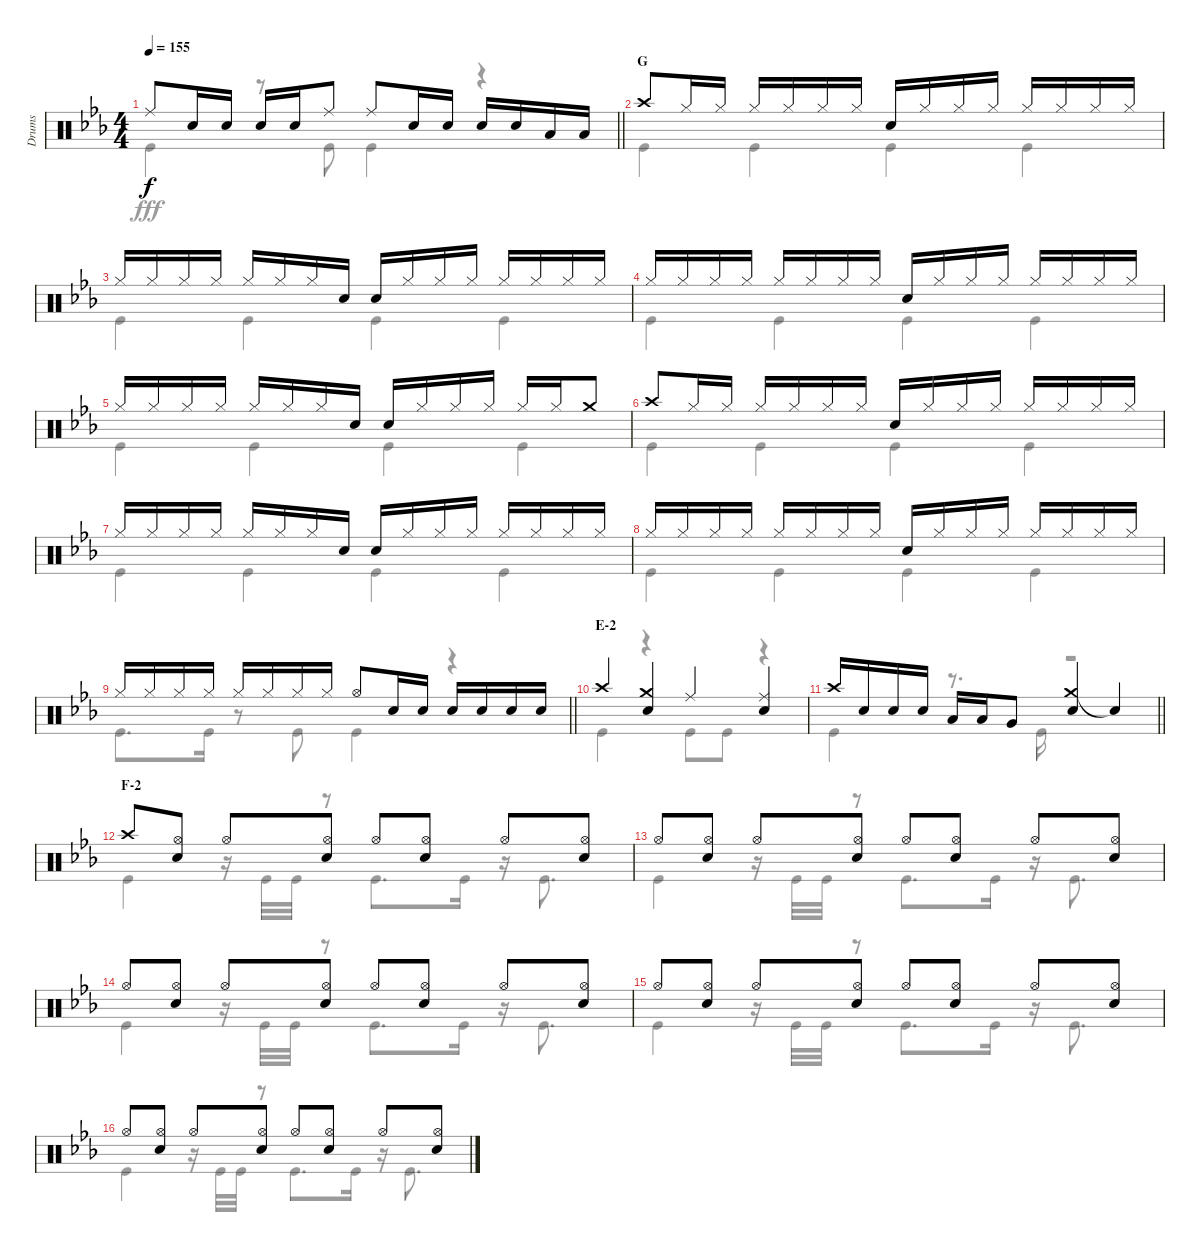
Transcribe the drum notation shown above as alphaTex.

\track ("Drums" "Drums") {instrument percussion}
\staff {score}
\articulation defaults
\voice
\ts (4 4)
\tempo 155
\clef neutral
\barLineRight lightlight
\ks eb "Ride (middle)".8{dy f} "Snare (hit) 2".16 "Snare (hit) 2".16 "Snare (hit) 2".16 "Snare (hit) 2".16 "Ride (middle)".8 "Ride (middle)".8 "Snare (hit) 2".16 "Snare (hit) 2".16 "Snare (hit) 2".16 "Snare (hit) 2".16 "Low Tom (hit)".16 "Low Tom (hit)".16
|
\section ("" "G")
"Crash high (hit)".8 "Hi-Hat (closed)".16 "Hi-Hat (closed)".16 "Hi-Hat (closed)".16 "Hi-Hat (closed)".16 "Hi-Hat (closed)".16 "Hi-Hat (closed)".16 "Snare (hit) 2".16 "Hi-Hat (closed)".16 "Hi-Hat (closed)".16 "Hi-Hat (closed)".16 "Hi-Hat (closed)".16 "Hi-Hat (closed)".16 "Hi-Hat (closed)".16 "Hi-Hat (closed)".16 |
"Hi-Hat (closed)".16 "Hi-Hat (closed)".16 "Hi-Hat (closed)".16 "Hi-Hat (closed)".16 "Hi-Hat (closed)".16 "Hi-Hat (closed)".16 "Hi-Hat (closed)".16 "Snare (hit) 2".16 "Snare (hit) 2".16 "Hi-Hat (closed)".16 "Hi-Hat (closed)".16 "Hi-Hat (closed)".16 "Hi-Hat (closed)".16 "Hi-Hat (closed)".16 "Hi-Hat (closed)".16 "Hi-Hat (closed)".16 |
"Hi-Hat (closed)".16 "Hi-Hat (closed)".16 "Hi-Hat (closed)".16 "Hi-Hat (closed)".16 "Hi-Hat (closed)".16 "Hi-Hat (closed)".16 "Hi-Hat (closed)".16 "Hi-Hat (closed)".16 "Snare (hit) 2".16 "Hi-Hat (closed)".16 "Hi-Hat (closed)".16 "Hi-Hat (closed)".16 "Hi-Hat (closed)".16 "Hi-Hat (closed)".16 "Hi-Hat (closed)".16 "Hi-Hat (closed)".16 |
"Hi-Hat (closed)".16 "Hi-Hat (closed)".16 "Hi-Hat (closed)".16 "Hi-Hat (closed)".16 "Hi-Hat (closed)".16 "Hi-Hat (closed)".16 "Hi-Hat (closed)".16 "Snare (hit) 2".16 "Snare (hit) 2".16 "Hi-Hat (closed)".16 "Hi-Hat (closed)".16 "Hi-Hat (closed)".16 "Hi-Hat (closed)".16 "Hi-Hat (closed)".16 "Crash medium (hit)".8 |
"Crash high (hit)".8 "Hi-Hat (closed)".16 "Hi-Hat (closed)".16 "Hi-Hat (closed)".16 "Hi-Hat (closed)".16 "Hi-Hat (closed)".16 "Hi-Hat (closed)".16 "Snare (hit) 2".16 "Hi-Hat (closed)".16 "Hi-Hat (closed)".16 "Hi-Hat (closed)".16 "Hi-Hat (closed)".16 "Hi-Hat (closed)".16 "Hi-Hat (closed)".16 "Hi-Hat (closed)".16 |
"Hi-Hat (closed)".16 "Hi-Hat (closed)".16 "Hi-Hat (closed)".16 "Hi-Hat (closed)".16 "Hi-Hat (closed)".16 "Hi-Hat (closed)".16 "Hi-Hat (closed)".16 "Snare (hit) 2".16 "Snare (hit) 2".16 "Hi-Hat (closed)".16 "Hi-Hat (closed)".16 "Hi-Hat (closed)".16 "Hi-Hat (closed)".16 "Hi-Hat (closed)".16 "Hi-Hat (closed)".16 "Hi-Hat (closed)".16 |
"Hi-Hat (closed)".16 "Hi-Hat (closed)".16 "Hi-Hat (closed)".16 "Hi-Hat (closed)".16 "Hi-Hat (closed)".16 "Hi-Hat (closed)".16 "Hi-Hat (closed)".16 "Hi-Hat (closed)".16 "Snare (hit) 2".16 "Hi-Hat (closed)".16 "Hi-Hat (closed)".16 "Hi-Hat (closed)".16 "Hi-Hat (closed)".16 "Hi-Hat (closed)".16 "Hi-Hat (closed)".16 "Hi-Hat (closed)".16 |
\barLineRight lightlight "Hi-Hat (closed)".16 "Hi-Hat (closed)".16 "Hi-Hat (closed)".16 "Hi-Hat (closed)".16 "Hi-Hat (closed)".16 "Hi-Hat (closed)".16 "Hi-Hat (closed)".16 "Hi-Hat (closed)".16 "Hi-Hat (open)".8 "Snare (hit) 2".16 "Snare (hit) 2".16 "Snare (hit) 2".16 "Snare (hit) 2".16 "Snare (hit) 2".16 "Snare (hit) 2".16
|
\section ("" "E-2")
"Crash high (hit)".4 ("Crash medium (hit)" "Snare (hit) 2").4 "Ride (middle)".4 ("Ride (middle)" "Snare (hit) 2").4 |
\barLineRight lightlight "Crash high (hit)".16 "Snare (hit) 2".16 "Snare (hit) 2".16 "Snare (hit) 2".16 "Low Tom (hit)".16 "Low Tom (hit)".16 "Very Low Tom (hit)".8
("Crash medium (hit)" "Snare (hit) 2").4 "Snare (hit)"{t}.4 |
\section ("" "F-2")
"Crash high (hit)".8 ("Hi-Hat (open)" "Snare (hit) 2").8 "Hi-Hat (open)".8 ("Hi-Hat (open)" "Snare (hit) 2").8 "Hi-Hat (open)".8 ("Hi-Hat (open)" "Snare (hit) 2").8 "Hi-Hat (open)".8 ("Hi-Hat (open)" "Snare (hit) 2").8 |
"Hi-Hat (open)".8 ("Hi-Hat (open)" "Snare (hit) 2").8 "Hi-Hat (open)".8 ("Hi-Hat (open)" "Snare (hit) 2").8 "Hi-Hat (open)".8 ("Hi-Hat (open)" "Snare (hit) 2").8 "Hi-Hat (open)".8 ("Hi-Hat (open)" "Snare (hit) 2").8 |
"Hi-Hat (open)".8 ("Hi-Hat (open)" "Snare (hit) 2").8 "Hi-Hat (open)".8 ("Hi-Hat (open)" "Snare (hit) 2").8 "Hi-Hat (open)".8 ("Hi-Hat (open)" "Snare (hit) 2").8 "Hi-Hat (open)".8 ("Hi-Hat (open)" "Snare (hit) 2").8 |
"Hi-Hat (open)".8 ("Hi-Hat (open)" "Snare (hit) 2").8 "Hi-Hat (open)".8 ("Hi-Hat (open)" "Snare (hit) 2").8 "Hi-Hat (open)".8 ("Hi-Hat (open)" "Snare (hit) 2").8 "Hi-Hat (open)".8 ("Hi-Hat (open)" "Snare (hit) 2").8 |
"Hi-Hat (open)".8 ("Hi-Hat (open)" "Snare (hit) 2").8 "Hi-Hat (open)".8 ("Hi-Hat (open)" "Snare (hit) 2").8 "Hi-Hat (open)".8 ("Hi-Hat (open)" "Snare (hit) 2").8 "Hi-Hat (open)".8 ("Hi-Hat (open)" "Snare (hit) 2").8
\voice
\clef neutral
\ottava regular
\simile none
\barLineRight lightlight
\ks eb "Kick (hit)".4{dy fff}
r.8 "Kick (hit)".8 "Kick (hit)".4 r.4 |
"Kick (hit)".4 "Kick (hit)".4 "Kick (hit)".4 "Kick (hit)".4 |
"Kick (hit)".4 "Kick (hit)".4 "Kick (hit)".4 "Kick (hit)".4 |
"Kick (hit)".4 "Kick (hit)".4 "Kick (hit)".4 "Kick (hit)".4 |
"Kick (hit)".4 "Kick (hit)".4 "Kick (hit)".4 "Kick (hit)".4 |
"Kick (hit)".4 "Kick (hit)".4 "Kick (hit)".4 "Kick (hit)".4 |
"Kick (hit)".4 "Kick (hit)".4 "Kick (hit)".4 "Kick (hit)".4 |
"Kick (hit)".4 "Kick (hit)".4 "Kick (hit)".4 "Kick (hit)".4 |
\barLineRight lightlight "Kick (hit)".8{d} "Kick (hit)".16
r.8 "Kick (hit)".8 "Kick (hit)".4 r.4 |
"Kick (hit)".4 r.4 "Kick (hit)".8 "Kick (hit)".8 r.4 |
\barLineRight lightlight "Kick (hit)".4
r.8{d} "Kick (hit)".16 r.2 |
"Kick (hit)".4 r.16 "Kick (hit)".32 "Kick (hit)".32 r.8 "Kick (hit)".8{d} "Kick (hit)".16 r.16 "Kick (hit)".8{d} |
"Kick (hit)".4 r.16 "Kick (hit)".32 "Kick (hit)".32 r.8 "Kick (hit)".8{d} "Kick (hit)".16 r.16 "Kick (hit)".8{d} |
"Kick (hit)".4 r.16 "Kick (hit)".32 "Kick (hit)".32 r.8 "Kick (hit)".8{d} "Kick (hit)".16 r.16 "Kick (hit)".8{d} |
"Kick (hit)".4 r.16 "Kick (hit)".32 "Kick (hit)".32 r.8 "Kick (hit)".8{d} "Kick (hit)".16 r.16 "Kick (hit)".8{d} |
"Kick (hit)".4 r.16 "Kick (hit)".32 "Kick (hit)".32 r.8 "Kick (hit)".8{d} "Kick (hit)".16 r.16 "Kick (hit)".8{d}
